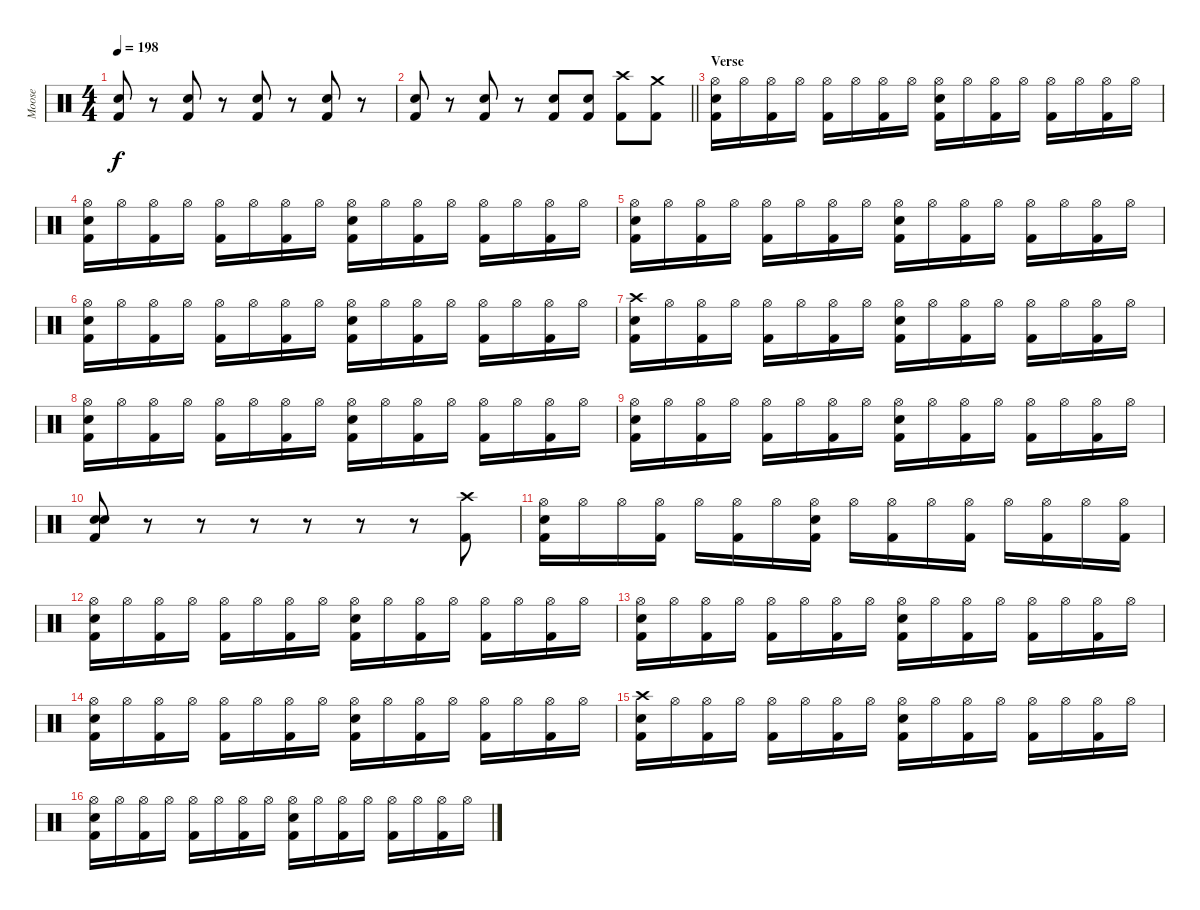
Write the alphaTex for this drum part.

\track ("Moose" "Moose") {instrument percussion}
\staff {score}
\articulation defaults
\ts (4 4)
\tempo 198
\clef neutral
\ks c
("Electric Snare (hit)" "Kick (hit) 2").8{dy f} r.8 ("Electric Snare (hit)" "Kick (hit) 2").8 r.8 ("Electric Snare (hit)" "Kick (hit) 2").8 r.8 ("Electric Snare (hit)" "Kick (hit) 2").8 r.8 |
\barLineRight lightlight
("Electric Snare (hit)" "Kick (hit) 2").8 r.8 ("Electric Snare (hit)" "Kick (hit) 2").8 r.8 ("Electric Snare (hit)" "Kick (hit) 2").8 ("Electric Snare (hit)" "Kick (hit) 2").8 ("Crash high (hit)" "Kick (hit) 2").8 ("Crash medium (hit)" "Kick (hit) 2").8 |
\section ("" "Verse")
("Hi-Hat (open)" "Electric Snare (hit)" "Kick (hit) 2").16 "Hi-Hat (open)".16 ("Hi-Hat (open)" "Kick (hit) 2").16 "Hi-Hat (open)".16 ("Hi-Hat (open)" "Kick (hit) 2").16 "Hi-Hat (open)".16 ("Hi-Hat (open)" "Kick (hit) 2").16 "Hi-Hat (open)".16 ("Hi-Hat (open)" "Electric Snare (hit)" "Kick (hit) 2").16 "Hi-Hat (open)".16 ("Hi-Hat (open)" "Kick (hit) 2").16 "Hi-Hat (open)".16 ("Hi-Hat (open)" "Kick (hit) 2").16 "Hi-Hat (open)".16 ("Hi-Hat (open)" "Kick (hit) 2").16 "Hi-Hat (open)".16 |
("Hi-Hat (open)" "Electric Snare (hit)" "Kick (hit) 2").16 "Hi-Hat (open)".16 ("Hi-Hat (open)" "Kick (hit) 2").16 "Hi-Hat (open)".16 ("Hi-Hat (open)" "Kick (hit) 2").16 "Hi-Hat (open)".16 ("Hi-Hat (open)" "Kick (hit) 2").16 "Hi-Hat (open)".16 ("Hi-Hat (open)" "Electric Snare (hit)" "Kick (hit) 2").16 "Hi-Hat (open)".16 ("Hi-Hat (open)" "Kick (hit) 2").16 "Hi-Hat (open)".16 ("Hi-Hat (open)" "Kick (hit) 2").16 "Hi-Hat (open)".16 ("Hi-Hat (open)" "Kick (hit) 2").16 "Hi-Hat (open)".16 |
("Hi-Hat (open)" "Electric Snare (hit)" "Kick (hit) 2").16 "Hi-Hat (open)".16 ("Hi-Hat (open)" "Kick (hit) 2").16 "Hi-Hat (open)".16 ("Hi-Hat (open)" "Kick (hit) 2").16 "Hi-Hat (open)".16 ("Hi-Hat (open)" "Kick (hit) 2").16 "Hi-Hat (open)".16 ("Hi-Hat (open)" "Electric Snare (hit)" "Kick (hit) 2").16 "Hi-Hat (open)".16 ("Hi-Hat (open)" "Kick (hit) 2").16 "Hi-Hat (open)".16 ("Hi-Hat (open)" "Kick (hit) 2").16 "Hi-Hat (open)".16 ("Hi-Hat (open)" "Kick (hit) 2").16 "Hi-Hat (open)".16 |
("Hi-Hat (open)" "Electric Snare (hit)" "Kick (hit) 2").16 "Hi-Hat (open)".16 ("Hi-Hat (open)" "Kick (hit) 2").16 "Hi-Hat (open)".16 ("Hi-Hat (open)" "Kick (hit) 2").16 "Hi-Hat (open)".16 ("Hi-Hat (open)" "Kick (hit) 2").16 "Hi-Hat (open)".16 ("Hi-Hat (open)" "Electric Snare (hit)" "Kick (hit) 2").16 "Hi-Hat (open)".16 ("Hi-Hat (open)" "Kick (hit) 2").16 "Hi-Hat (open)".16 ("Hi-Hat (open)" "Kick (hit) 2").16 "Hi-Hat (open)".16 ("Hi-Hat (open)" "Kick (hit) 2").16 "Hi-Hat (open)".16 |
("Crash high (hit)" "Electric Snare (hit)" "Kick (hit) 2").16 "Hi-Hat (open)".16 ("Hi-Hat (open)" "Kick (hit) 2").16 "Hi-Hat (open)".16 ("Hi-Hat (open)" "Kick (hit) 2").16 "Hi-Hat (open)".16 ("Hi-Hat (open)" "Kick (hit) 2").16 "Hi-Hat (open)".16 ("Hi-Hat (open)" "Electric Snare (hit)" "Kick (hit) 2").16 "Hi-Hat (open)".16 ("Hi-Hat (open)" "Kick (hit) 2").16 "Hi-Hat (open)".16 ("Hi-Hat (open)" "Kick (hit) 2").16 "Hi-Hat (open)".16 ("Hi-Hat (open)" "Kick (hit) 2").16 "Hi-Hat (open)".16 |
("Hi-Hat (open)" "Electric Snare (hit)" "Kick (hit) 2").16 "Hi-Hat (open)".16 ("Hi-Hat (open)" "Kick (hit) 2").16 "Hi-Hat (open)".16 ("Hi-Hat (open)" "Kick (hit) 2").16 "Hi-Hat (open)".16 ("Hi-Hat (open)" "Kick (hit) 2").16 "Hi-Hat (open)".16 ("Hi-Hat (open)" "Electric Snare (hit)" "Kick (hit) 2").16 "Hi-Hat (open)".16 ("Hi-Hat (open)" "Kick (hit) 2").16 "Hi-Hat (open)".16 ("Hi-Hat (open)" "Kick (hit) 2").16 "Hi-Hat (open)".16 ("Hi-Hat (open)" "Kick (hit) 2").16 "Hi-Hat (open)".16 |
("Hi-Hat (open)" "Electric Snare (hit)" "Kick (hit) 2").16 "Hi-Hat (open)".16 ("Hi-Hat (open)" "Kick (hit) 2").16 "Hi-Hat (open)".16 ("Hi-Hat (open)" "Kick (hit) 2").16 "Hi-Hat (open)".16 ("Hi-Hat (open)" "Kick (hit) 2").16 "Hi-Hat (open)".16 ("Hi-Hat (open)" "Electric Snare (hit)" "Kick (hit) 2").16 "Hi-Hat (open)".16 ("Hi-Hat (open)" "Kick (hit) 2").16 "Hi-Hat (open)".16 ("Hi-Hat (open)" "Kick (hit) 2").16 "Hi-Hat (open)".16 ("Hi-Hat (open)" "Kick (hit) 2").16 "Hi-Hat (open)".16 |
("Electric Snare (hit)" "Electric Snare (hit)" "Kick (hit) 2").8 r.8 r.8 r.8 r.8 r.8 r.8 ("Crash high (hit)" "Kick (hit) 2").8 |
("Hi-Hat (open)" "Electric Snare (hit)" "Kick (hit) 2").16 "Hi-Hat (open)".16 "Hi-Hat (open)".16 ("Hi-Hat (open)" "Kick (hit) 2").16 "Hi-Hat (open)".16 ("Hi-Hat (open)" "Kick (hit) 2").16 "Hi-Hat (open)".16 ("Hi-Hat (open)" "Electric Snare (hit)" "Kick (hit) 2").16 "Hi-Hat (open)".16 ("Hi-Hat (open)" "Kick (hit) 2").16 "Hi-Hat (open)".16 ("Hi-Hat (open)" "Kick (hit) 2").16 "Hi-Hat (open)".16 ("Hi-Hat (open)" "Kick (hit) 2").16 "Hi-Hat (open)".16 ("Hi-Hat (open)" "Kick (hit) 2").16 |
("Hi-Hat (open)" "Electric Snare (hit)" "Kick (hit) 2").16 "Hi-Hat (open)".16 ("Hi-Hat (open)" "Kick (hit) 2").16 "Hi-Hat (open)".16 ("Hi-Hat (open)" "Kick (hit) 2").16 "Hi-Hat (open)".16 ("Hi-Hat (open)" "Kick (hit) 2").16 "Hi-Hat (open)".16 ("Hi-Hat (open)" "Electric Snare (hit)" "Kick (hit) 2").16 "Hi-Hat (open)".16 ("Hi-Hat (open)" "Kick (hit) 2").16 "Hi-Hat (open)".16 ("Hi-Hat (open)" "Kick (hit) 2").16 "Hi-Hat (open)".16 ("Hi-Hat (open)" "Kick (hit) 2").16 "Hi-Hat (open)".16 |
("Hi-Hat (open)" "Electric Snare (hit)" "Kick (hit) 2").16 "Hi-Hat (open)".16 ("Hi-Hat (open)" "Kick (hit) 2").16 "Hi-Hat (open)".16 ("Hi-Hat (open)" "Kick (hit) 2").16 "Hi-Hat (open)".16 ("Hi-Hat (open)" "Kick (hit) 2").16 "Hi-Hat (open)".16 ("Hi-Hat (open)" "Electric Snare (hit)" "Kick (hit) 2").16 "Hi-Hat (open)".16 ("Hi-Hat (open)" "Kick (hit) 2").16 "Hi-Hat (open)".16 ("Hi-Hat (open)" "Kick (hit) 2").16 "Hi-Hat (open)".16 ("Hi-Hat (open)" "Kick (hit) 2").16 "Hi-Hat (open)".16 |
("Hi-Hat (open)" "Electric Snare (hit)" "Kick (hit) 2").16 "Hi-Hat (open)".16 ("Hi-Hat (open)" "Kick (hit) 2").16 "Hi-Hat (open)".16 ("Hi-Hat (open)" "Kick (hit) 2").16 "Hi-Hat (open)".16 ("Hi-Hat (open)" "Kick (hit) 2").16 "Hi-Hat (open)".16 ("Hi-Hat (open)" "Electric Snare (hit)" "Kick (hit) 2").16 "Hi-Hat (open)".16 ("Hi-Hat (open)" "Kick (hit) 2").16 "Hi-Hat (open)".16 ("Hi-Hat (open)" "Kick (hit) 2").16 "Hi-Hat (open)".16 ("Hi-Hat (open)" "Kick (hit) 2").16 "Hi-Hat (open)".16 |
("Crash high (hit)" "Electric Snare (hit)" "Kick (hit) 2").16 "Hi-Hat (open)".16 ("Hi-Hat (open)" "Kick (hit) 2").16 "Hi-Hat (open)".16 ("Hi-Hat (open)" "Kick (hit) 2").16 "Hi-Hat (open)".16 ("Hi-Hat (open)" "Kick (hit) 2").16 "Hi-Hat (open)".16 ("Hi-Hat (open)" "Electric Snare (hit)" "Kick (hit) 2").16 "Hi-Hat (open)".16 ("Hi-Hat (open)" "Kick (hit) 2").16 "Hi-Hat (open)".16 ("Hi-Hat (open)" "Kick (hit) 2").16 "Hi-Hat (open)".16 ("Hi-Hat (open)" "Kick (hit) 2").16 "Hi-Hat (open)".16 |
("Hi-Hat (open)" "Electric Snare (hit)" "Kick (hit) 2").16 "Hi-Hat (open)".16 ("Hi-Hat (open)" "Kick (hit) 2").16 "Hi-Hat (open)".16 ("Hi-Hat (open)" "Kick (hit) 2").16 "Hi-Hat (open)".16 ("Hi-Hat (open)" "Kick (hit) 2").16 "Hi-Hat (open)".16 ("Hi-Hat (open)" "Electric Snare (hit)" "Kick (hit) 2").16 "Hi-Hat (open)".16 ("Hi-Hat (open)" "Kick (hit) 2").16 "Hi-Hat (open)".16 ("Hi-Hat (open)" "Kick (hit) 2").16 "Hi-Hat (open)".16 ("Hi-Hat (open)" "Kick (hit) 2").16 "Hi-Hat (open)".16
